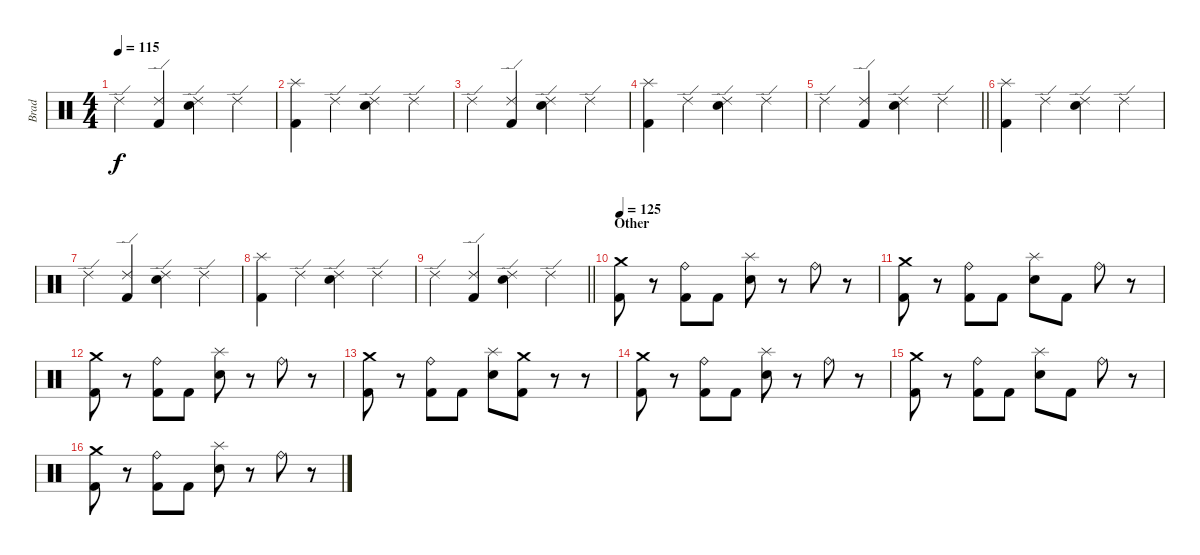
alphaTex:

\track ("Brad" "Brad") {instrument percussion}
\staff {score}
\articulation defaults
\ts (4 4)
\tempo 115
\clef neutral
\ks c "Ride (edge) 2".4{dy f}
("Ride (edge) 2" "Kick (hit) 2").4 ("Ride (edge) 2" "Electric Snare (hit)").4 "Ride (edge) 2".4 |
("Splash (hit)" "Kick (hit) 2").4 "Ride (edge) 2".4 ("Ride (edge) 2" "Electric Snare (hit)").4 "Ride (edge) 2".4 |
"Ride (edge) 2".4 ("Ride (edge) 2" "Kick (hit) 2").4 ("Ride (edge) 2" "Electric Snare (hit)").4 "Ride (edge) 2".4 |
("Splash (hit)" "Kick (hit) 2").4 "Ride (edge) 2".4 ("Ride (edge) 2" "Electric Snare (hit)").4 "Ride (edge) 2".4 |
\barLineRight lightlight "Ride (edge) 2".4
("Ride (edge) 2" "Kick (hit) 2").4 ("Ride (edge) 2" "Electric Snare (hit)").4 "Ride (edge) 2".4 |
("Splash (hit)" "Kick (hit) 2").4 "Ride (edge) 2".4 ("Ride (edge) 2" "Electric Snare (hit)").4 "Ride (edge) 2".4 |
"Ride (edge) 2".4 ("Ride (edge) 2" "Kick (hit) 2").4 ("Ride (edge) 2" "Electric Snare (hit)").4 "Ride (edge) 2".4 |
("Splash (hit)" "Kick (hit) 2").4 "Ride (edge) 2".4 ("Ride (edge) 2" "Electric Snare (hit)").4 "Ride (edge) 2".4 |
\barLineRight lightlight "Ride (edge) 2".4
("Ride (edge) 2" "Kick (hit) 2").4 ("Ride (edge) 2" "Electric Snare (hit)").4 "Ride (edge) 2".4 |
\section ("" "Other")
\tempo 125
("Crash medium (hit)" "Kick (hit) 2").8 r.8 ("Ride (bell)" "Kick (hit) 2").8 "Kick (hit) 2".8 ("Splash (hit)" "Electric Snare (hit)").8 r.8 "Ride (bell)".8 r.8 |
("Crash medium (hit)" "Kick (hit) 2").8 r.8 ("Ride (bell)" "Kick (hit) 2").8 "Kick (hit) 2".8 ("Splash (hit)" "Electric Snare (hit)").8 "Kick (hit) 2".8 "Ride (bell)".8 r.8 |
("Crash medium (hit)" "Kick (hit) 2").8 r.8 ("Ride (bell)" "Kick (hit) 2").8 "Kick (hit) 2".8 ("Splash (hit)" "Electric Snare (hit)").8 r.8 "Ride (bell)".8 r.8 |
("Crash medium (hit)" "Kick (hit) 2").8 r.8 ("Ride (bell)" "Kick (hit) 2").8 "Kick (hit) 2".8 ("Splash (hit)" "Electric Snare (hit)").8 ("Crash medium (hit)" "Kick (hit) 2").8 r.8 r.8 |
("Crash medium (hit)" "Kick (hit) 2").8 r.8 ("Ride (bell)" "Kick (hit) 2").8 "Kick (hit) 2".8 ("Splash (hit)" "Electric Snare (hit)").8 r.8 "Ride (bell)".8 r.8 |
("Crash medium (hit)" "Kick (hit) 2").8 r.8 ("Ride (bell)" "Kick (hit) 2").8 "Kick (hit) 2".8 ("Splash (hit)" "Electric Snare (hit)").8 "Kick (hit) 2".8 "Ride (bell)".8 r.8 |
("Crash medium (hit)" "Kick (hit) 2").8 r.8 ("Ride (bell)" "Kick (hit) 2").8 "Kick (hit) 2".8 ("Splash (hit)" "Electric Snare (hit)").8 r.8 "Ride (bell)".8 r.8
